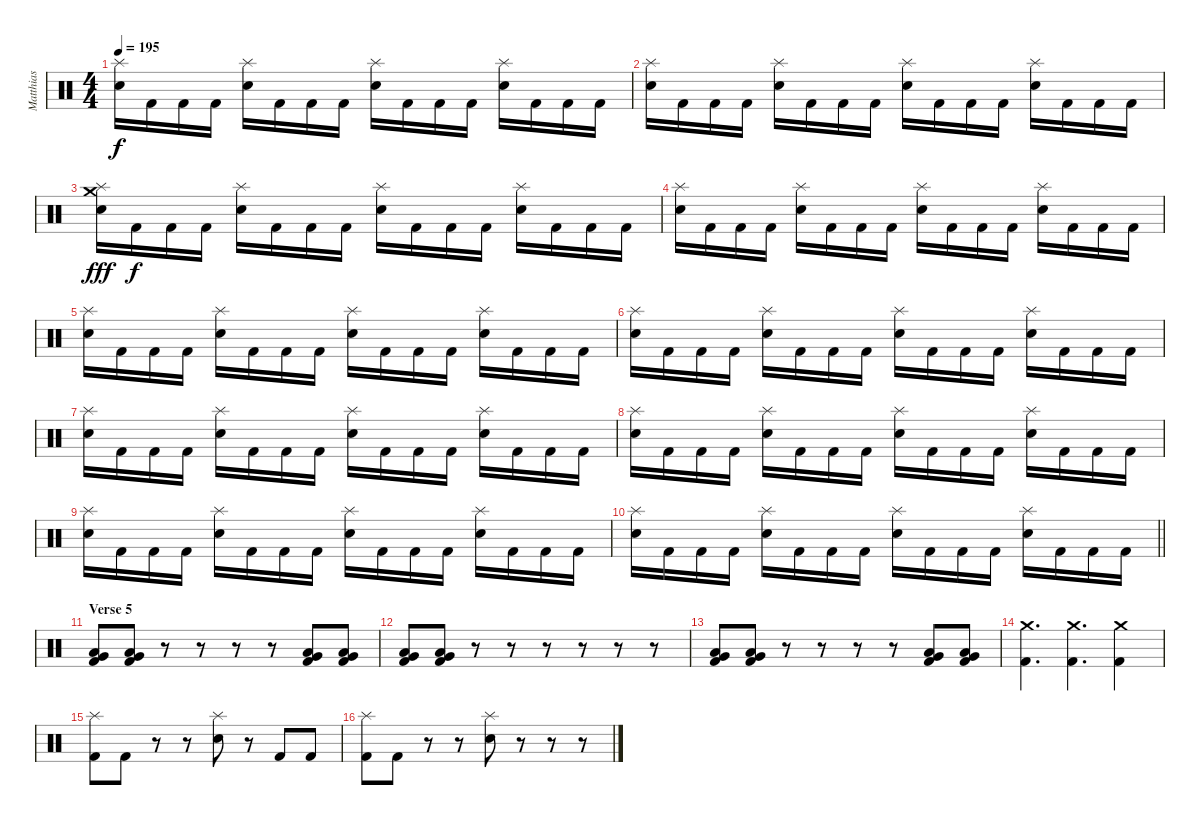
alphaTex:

\track ("Matthias" "Matthias") {instrument percussion}
\staff {score}
\articulation defaults
\ts (4 4)
\tempo 195
\clef neutral
\ks c
("Splash (hit)" "Electric Snare (hit)").16{dy f} "Kick (hit) 2".16 "Kick (hit) 2".16 "Kick (hit) 2".16 ("Splash (hit)" "Electric Snare (hit)").16 "Kick (hit) 2".16 "Kick (hit) 2".16 "Kick (hit) 2".16 ("Splash (hit)" "Electric Snare (hit)").16 "Kick (hit) 2".16 "Kick (hit) 2".16 "Kick (hit) 2".16 ("Splash (hit)" "Electric Snare (hit)").16 "Kick (hit) 2".16 "Kick (hit) 2".16 "Kick (hit) 2".16 |
("Splash (hit)" "Electric Snare (hit)").16 "Kick (hit) 2".16 "Kick (hit) 2".16 "Kick (hit) 2".16 ("Splash (hit)" "Electric Snare (hit)").16 "Kick (hit) 2".16 "Kick (hit) 2".16 "Kick (hit) 2".16 ("Splash (hit)" "Electric Snare (hit)").16 "Kick (hit) 2".16 "Kick (hit) 2".16 "Kick (hit) 2".16 ("Splash (hit)" "Electric Snare (hit)").16 "Kick (hit) 2".16 "Kick (hit) 2".16 "Kick (hit) 2".16 |
("Crash medium (hit)" "Splash (hit)" "Electric Snare (hit)").16{dy fff} "Kick (hit) 2".16{dy f} "Kick (hit) 2".16 "Kick (hit) 2".16 ("Splash (hit)" "Electric Snare (hit)").16 "Kick (hit) 2".16 "Kick (hit) 2".16 "Kick (hit) 2".16 ("Splash (hit)" "Electric Snare (hit)").16 "Kick (hit) 2".16 "Kick (hit) 2".16 "Kick (hit) 2".16 ("Splash (hit)" "Electric Snare (hit)").16 "Kick (hit) 2".16 "Kick (hit) 2".16 "Kick (hit) 2".16 |
("Splash (hit)" "Electric Snare (hit)").16 "Kick (hit) 2".16 "Kick (hit) 2".16 "Kick (hit) 2".16 ("Splash (hit)" "Electric Snare (hit)").16 "Kick (hit) 2".16 "Kick (hit) 2".16 "Kick (hit) 2".16 ("Splash (hit)" "Electric Snare (hit)").16 "Kick (hit) 2".16 "Kick (hit) 2".16 "Kick (hit) 2".16 ("Splash (hit)" "Electric Snare (hit)").16 "Kick (hit) 2".16 "Kick (hit) 2".16 "Kick (hit) 2".16 |
("Splash (hit)" "Electric Snare (hit)").16 "Kick (hit) 2".16 "Kick (hit) 2".16 "Kick (hit) 2".16 ("Splash (hit)" "Electric Snare (hit)").16 "Kick (hit) 2".16 "Kick (hit) 2".16 "Kick (hit) 2".16 ("Splash (hit)" "Electric Snare (hit)").16 "Kick (hit) 2".16 "Kick (hit) 2".16 "Kick (hit) 2".16 ("Splash (hit)" "Electric Snare (hit)").16 "Kick (hit) 2".16 "Kick (hit) 2".16 "Kick (hit) 2".16 |
("Splash (hit)" "Electric Snare (hit)").16 "Kick (hit) 2".16 "Kick (hit) 2".16 "Kick (hit) 2".16 ("Splash (hit)" "Electric Snare (hit)").16 "Kick (hit) 2".16 "Kick (hit) 2".16 "Kick (hit) 2".16 ("Splash (hit)" "Electric Snare (hit)").16 "Kick (hit) 2".16 "Kick (hit) 2".16 "Kick (hit) 2".16 ("Splash (hit)" "Electric Snare (hit)").16 "Kick (hit) 2".16 "Kick (hit) 2".16 "Kick (hit) 2".16 |
("Splash (hit)" "Electric Snare (hit)").16 "Kick (hit) 2".16 "Kick (hit) 2".16 "Kick (hit) 2".16 ("Splash (hit)" "Electric Snare (hit)").16 "Kick (hit) 2".16 "Kick (hit) 2".16 "Kick (hit) 2".16 ("Splash (hit)" "Electric Snare (hit)").16 "Kick (hit) 2".16 "Kick (hit) 2".16 "Kick (hit) 2".16 ("Splash (hit)" "Electric Snare (hit)").16 "Kick (hit) 2".16 "Kick (hit) 2".16 "Kick (hit) 2".16 |
("Splash (hit)" "Electric Snare (hit)").16 "Kick (hit) 2".16 "Kick (hit) 2".16 "Kick (hit) 2".16 ("Splash (hit)" "Electric Snare (hit)").16 "Kick (hit) 2".16 "Kick (hit) 2".16 "Kick (hit) 2".16 ("Splash (hit)" "Electric Snare (hit)").16 "Kick (hit) 2".16 "Kick (hit) 2".16 "Kick (hit) 2".16 ("Splash (hit)" "Electric Snare (hit)").16 "Kick (hit) 2".16 "Kick (hit) 2".16 "Kick (hit) 2".16 |
("Splash (hit)" "Electric Snare (hit)").16 "Kick (hit) 2".16 "Kick (hit) 2".16 "Kick (hit) 2".16 ("Splash (hit)" "Electric Snare (hit)").16 "Kick (hit) 2".16 "Kick (hit) 2".16 "Kick (hit) 2".16 ("Splash (hit)" "Electric Snare (hit)").16 "Kick (hit) 2".16 "Kick (hit) 2".16 "Kick (hit) 2".16 ("Splash (hit)" "Electric Snare (hit)").16 "Kick (hit) 2".16 "Kick (hit) 2".16 "Kick (hit) 2".16 |
\barLineRight lightlight
("Splash (hit)" "Electric Snare (hit)").16 "Kick (hit) 2".16 "Kick (hit) 2".16 "Kick (hit) 2".16 ("Splash (hit)" "Electric Snare (hit)").16 "Kick (hit) 2".16 "Kick (hit) 2".16 "Kick (hit) 2".16 ("Splash (hit)" "Electric Snare (hit)").16 "Kick (hit) 2".16 "Kick (hit) 2".16 "Kick (hit) 2".16 ("Splash (hit)" "Electric Snare (hit)").16 "Kick (hit) 2".16 "Kick (hit) 2".16 "Kick (hit) 2".16 |
\section ("" "Verse 5")
("Low Tom (hit)" "Very Low Tom (hit)" "Kick (hit) 2").8 ("Low Tom (hit)" "Very Low Tom (hit)" "Kick (hit) 2").8 r.8 r.8 r.8 r.8 ("Low Tom (hit)" "Very Low Tom (hit)" "Kick (hit) 2").8 ("Low Tom (hit)" "Very Low Tom (hit)" "Kick (hit) 2").8 |
("Low Tom (hit)" "Very Low Tom (hit)" "Kick (hit) 2").8 ("Low Tom (hit)" "Very Low Tom (hit)" "Kick (hit) 2").8 r.8 r.8 r.8 r.8 r.8 r.8 |
("Low Tom (hit)" "Very Low Tom (hit)" "Kick (hit) 2").8 ("Low Tom (hit)" "Very Low Tom (hit)" "Kick (hit) 2").8 r.8 r.8 r.8 r.8 ("Low Tom (hit)" "Very Low Tom (hit)" "Kick (hit) 2").8 ("Low Tom (hit)" "Very Low Tom (hit)" "Kick (hit) 2").8 |
("Crash medium (hit)" "Kick (hit) 2").4{d} ("Crash medium (hit)" "Kick (hit) 2").4{d} ("Crash medium (hit)" "Kick (hit) 2").4 |
("Splash (hit)" "Kick (hit) 2").8 "Kick (hit) 2".8 r.8 r.8 ("Splash (hit)" "Electric Snare (hit)").8 r.8 "Kick (hit) 2".8 "Kick (hit) 2".8 |
("Splash (hit)" "Kick (hit) 2").8 "Kick (hit) 2".8 r.8 r.8 ("Splash (hit)" "Electric Snare (hit)").8 r.8 r.8 r.8
